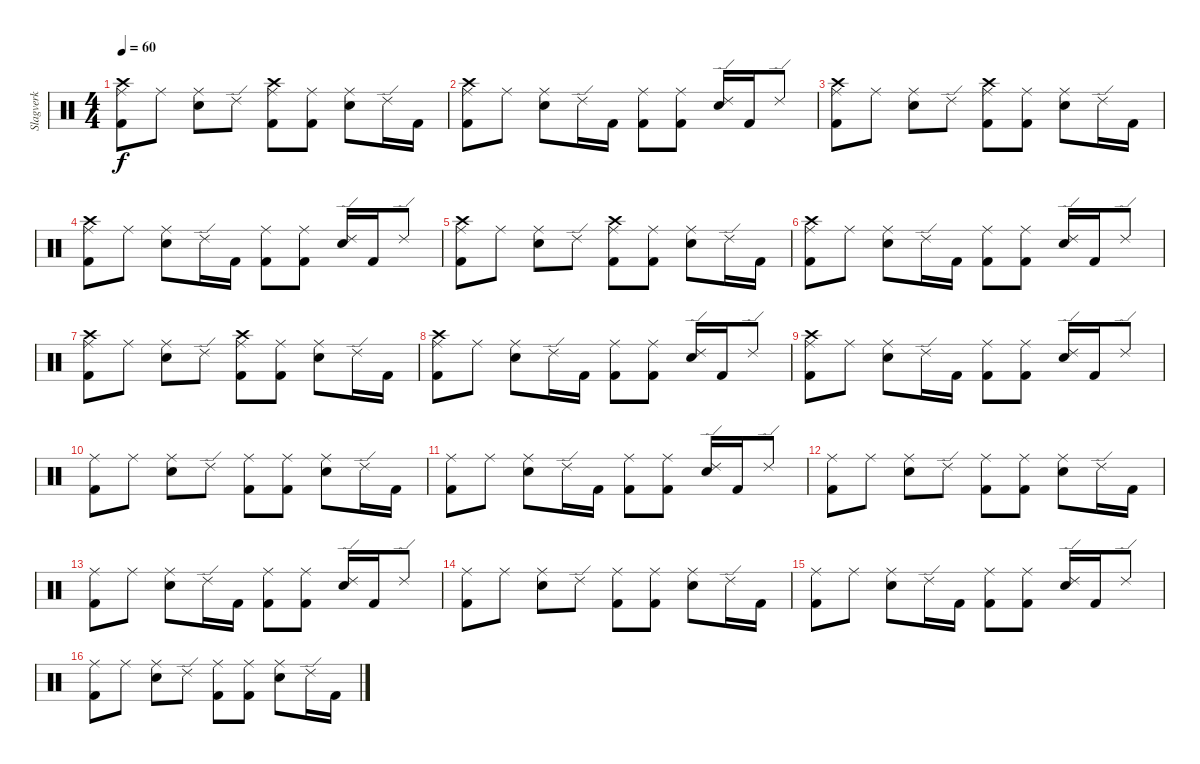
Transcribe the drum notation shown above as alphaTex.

\track ("Slagverk" "Slagverk") {instrument percussion}
\staff {score}
\articulation defaults
\ts (4 4)
\tempo 60
\clef neutral
\ks c
("Crash high (hit)" "Ride (middle)" "Kick (hit) 2").8{dy f} "Ride (middle)".8 ("Ride (middle)" "Snare (hit) 2").8 "Ride (edge) 2".8 ("Crash high (hit)" "Ride (middle)" "Kick (hit) 2").8 ("Ride (middle)" "Kick (hit) 2").8 ("Ride (middle)" "Snare (hit) 2").8 "Ride (edge) 2".16 "Kick (hit) 2".16 |
("Crash high (hit)" "Ride (middle)" "Kick (hit) 2").8 "Ride (middle)".8 ("Ride (middle)" "Snare (hit) 2").8 "Ride (edge) 2".16 "Kick (hit) 2".16 ("Ride (middle)" "Kick (hit) 2").8 ("Ride (middle)" "Kick (hit) 2").8 ("Ride (edge) 2" "Snare (hit) 2").16 "Kick (hit) 2".16 "Ride (edge) 2".8 |
("Crash high (hit)" "Ride (middle)" "Kick (hit) 2").8 "Ride (middle)".8 ("Ride (middle)" "Snare (hit) 2").8 "Ride (edge) 2".8 ("Crash high (hit)" "Ride (middle)" "Kick (hit) 2").8 ("Ride (middle)" "Kick (hit) 2").8 ("Ride (middle)" "Snare (hit) 2").8 "Ride (edge) 2".16 "Kick (hit) 2".16 |
("Crash high (hit)" "Ride (middle)" "Kick (hit) 2").8 "Ride (middle)".8 ("Ride (middle)" "Snare (hit) 2").8 "Ride (edge) 2".16 "Kick (hit) 2".16 ("Ride (middle)" "Kick (hit) 2").8 ("Ride (middle)" "Kick (hit) 2").8 ("Ride (edge) 2" "Snare (hit) 2").16 "Kick (hit) 2".16 "Ride (edge) 2".8 |
("Crash high (hit)" "Ride (middle)" "Kick (hit) 2").8 "Ride (middle)".8 ("Ride (middle)" "Snare (hit) 2").8 "Ride (edge) 2".8 ("Crash high (hit)" "Ride (middle)" "Kick (hit) 2").8 ("Ride (middle)" "Kick (hit) 2").8 ("Ride (middle)" "Snare (hit) 2").8 "Ride (edge) 2".16 "Kick (hit) 2".16 |
("Crash high (hit)" "Ride (middle)" "Kick (hit) 2").8 "Ride (middle)".8 ("Ride (middle)" "Snare (hit) 2").8 "Ride (edge) 2".16 "Kick (hit) 2".16 ("Ride (middle)" "Kick (hit) 2").8 ("Ride (middle)" "Kick (hit) 2").8 ("Ride (edge) 2" "Snare (hit) 2").16 "Kick (hit) 2".16 "Ride (edge) 2".8 |
("Crash high (hit)" "Ride (middle)" "Kick (hit) 2").8 "Ride (middle)".8 ("Ride (middle)" "Snare (hit) 2").8 "Ride (edge) 2".8 ("Crash high (hit)" "Ride (middle)" "Kick (hit) 2").8 ("Ride (middle)" "Kick (hit) 2").8 ("Ride (middle)" "Snare (hit) 2").8 "Ride (edge) 2".16 "Kick (hit) 2".16 |
("Crash high (hit)" "Ride (middle)" "Kick (hit) 2").8 "Ride (middle)".8 ("Ride (middle)" "Snare (hit) 2").8 "Ride (edge) 2".16 "Kick (hit) 2".16 ("Ride (middle)" "Kick (hit) 2").8 ("Ride (middle)" "Kick (hit) 2").8 ("Ride (edge) 2" "Snare (hit) 2").16 "Kick (hit) 2".16 "Ride (edge) 2".8 |
("Crash high (hit)" "Ride (middle)" "Kick (hit) 2").8 "Ride (middle)".8 ("Ride (middle)" "Snare (hit) 2").8 "Ride (edge) 2".16 "Kick (hit) 2".16 ("Ride (middle)" "Kick (hit) 2").8 ("Ride (middle)" "Kick (hit) 2").8 ("Ride (edge) 2" "Snare (hit) 2").16 "Kick (hit) 2".16 "Ride (edge) 2".8 |
("Ride (middle)" "Kick (hit) 2").8 "Ride (middle)".8 ("Ride (middle)" "Snare (hit) 2").8 "Ride (edge) 2".8 ("Ride (middle)" "Kick (hit) 2").8 ("Ride (middle)" "Kick (hit) 2").8 ("Ride (middle)" "Snare (hit) 2").8 "Ride (edge) 2".16 "Kick (hit) 2".16 |
("Ride (middle)" "Kick (hit) 2").8 "Ride (middle)".8 ("Ride (middle)" "Snare (hit) 2").8 "Ride (edge) 2".16 "Kick (hit) 2".16 ("Ride (middle)" "Kick (hit) 2").8 ("Ride (middle)" "Kick (hit) 2").8 ("Ride (edge) 2" "Snare (hit) 2").16 "Kick (hit) 2".16 "Ride (edge) 2".8 |
("Ride (middle)" "Kick (hit) 2").8 "Ride (middle)".8 ("Ride (middle)" "Snare (hit) 2").8 "Ride (edge) 2".8 ("Ride (middle)" "Kick (hit) 2").8 ("Ride (middle)" "Kick (hit) 2").8 ("Ride (middle)" "Snare (hit) 2").8 "Ride (edge) 2".16 "Kick (hit) 2".16 |
("Ride (middle)" "Kick (hit) 2").8 "Ride (middle)".8 ("Ride (middle)" "Snare (hit) 2").8 "Ride (edge) 2".16 "Kick (hit) 2".16 ("Ride (middle)" "Kick (hit) 2").8 ("Ride (middle)" "Kick (hit) 2").8 ("Ride (edge) 2" "Snare (hit) 2").16 "Kick (hit) 2".16 "Ride (edge) 2".8 |
("Ride (middle)" "Kick (hit) 2").8 "Ride (middle)".8 ("Ride (middle)" "Snare (hit) 2").8 "Ride (edge) 2".8 ("Ride (middle)" "Kick (hit) 2").8 ("Ride (middle)" "Kick (hit) 2").8 ("Ride (middle)" "Snare (hit) 2").8 "Ride (edge) 2".16 "Kick (hit) 2".16 |
("Ride (middle)" "Kick (hit) 2").8 "Ride (middle)".8 ("Ride (middle)" "Snare (hit) 2").8 "Ride (edge) 2".16 "Kick (hit) 2".16 ("Ride (middle)" "Kick (hit) 2").8 ("Ride (middle)" "Kick (hit) 2").8 ("Ride (edge) 2" "Snare (hit) 2").16 "Kick (hit) 2".16 "Ride (edge) 2".8 |
("Ride (middle)" "Kick (hit) 2").8 "Ride (middle)".8 ("Ride (middle)" "Snare (hit) 2").8 "Ride (edge) 2".8 ("Ride (middle)" "Kick (hit) 2").8 ("Ride (middle)" "Kick (hit) 2").8 ("Ride (middle)" "Snare (hit) 2").8 "Ride (edge) 2".16 "Kick (hit) 2".16
